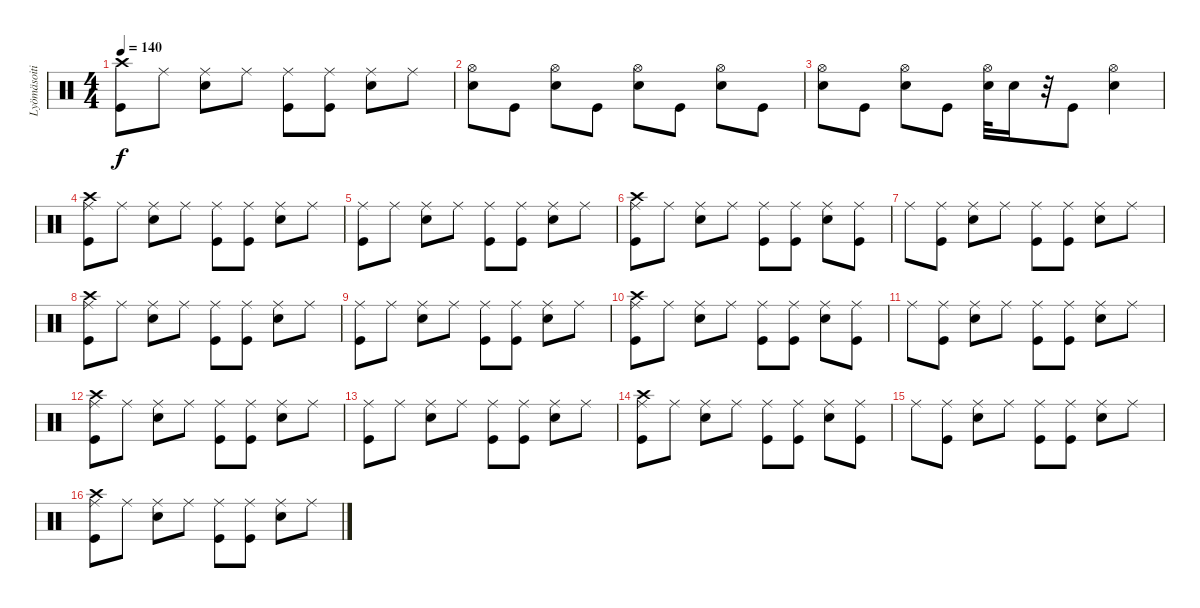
\track ("Lyömäsoitin" "Lyömäsoiti") {instrument percussion}
\staff {score}
\articulation defaults
\ts (4 4)
\tempo 140
\clef neutral
\ks c
("Crash high (hit)" "Kick (hit)").8{dy f} "Ride (middle)".8 ("Ride (middle)" "Snare (hit) 2").8 "Ride (middle)".8 ("Ride (middle)" "Kick (hit)").8 ("Ride (middle)" "Kick (hit)").8 ("Ride (middle)" "Snare (hit) 2").8 "Ride (middle)".8 |
("Hi-Hat (open)" "Snare (hit) 2").8 "Kick (hit)".8 ("Hi-Hat (open)" "Snare (hit) 2").8 "Kick (hit)".8 ("Hi-Hat (open)" "Snare (hit) 2").8 "Kick (hit)".8 ("Hi-Hat (open)" "Snare (hit) 2").8 "Kick (hit)".8 |
("Hi-Hat (open)" "Snare (hit) 2").8 "Kick (hit)".8 ("Hi-Hat (open)" "Snare (hit) 2").8 "Kick (hit)".8 ("Hi-Hat (open)" "Snare (hit) 2").32 "Snare (hit) 2".16 r.32 "Kick (hit)".8 ("Hi-Hat (open)" "Snare (hit) 2").4 |
("Crash high (hit)" "Ride (middle)" "Kick (hit)").8 "Ride (middle)".8 ("Ride (middle)" "Snare (hit) 2").8 "Ride (middle)".8 ("Ride (middle)" "Kick (hit)").8 ("Ride (middle)" "Kick (hit)").8 ("Ride (middle)" "Snare (hit) 2").8 "Ride (middle)".8 |
("Ride (middle)" "Kick (hit)").8 "Ride (middle)".8 ("Ride (middle)" "Snare (hit) 2").8 "Ride (middle)".8 ("Ride (middle)" "Kick (hit)").8 ("Ride (middle)" "Kick (hit)").8 ("Ride (middle)" "Snare (hit) 2").8 "Ride (middle)".8 |
("Crash high (hit)" "Ride (middle)" "Kick (hit)").8 "Ride (middle)".8 ("Ride (middle)" "Snare (hit) 2").8 "Ride (middle)".8 ("Ride (middle)" "Kick (hit)").8 ("Ride (middle)" "Kick (hit)").8 ("Ride (middle)" "Snare (hit) 2").8 ("Ride (middle)" "Kick (hit)").8 |
"Ride (middle)".8 ("Ride (middle)" "Kick (hit)").8 ("Ride (middle)" "Snare (hit) 2").8 "Ride (middle)".8 ("Ride (middle)" "Kick (hit)").8 ("Ride (middle)" "Kick (hit)").8 ("Ride (middle)" "Snare (hit) 2").8 "Ride (middle)".8 |
("Crash high (hit)" "Ride (middle)" "Kick (hit)").8 "Ride (middle)".8 ("Ride (middle)" "Snare (hit) 2").8 "Ride (middle)".8 ("Ride (middle)" "Kick (hit)").8 ("Ride (middle)" "Kick (hit)").8 ("Ride (middle)" "Snare (hit) 2").8 "Ride (middle)".8 |
("Ride (middle)" "Kick (hit)").8 "Ride (middle)".8 ("Ride (middle)" "Snare (hit) 2").8 "Ride (middle)".8 ("Ride (middle)" "Kick (hit)").8 ("Ride (middle)" "Kick (hit)").8 ("Ride (middle)" "Snare (hit) 2").8 "Ride (middle)".8 |
("Crash high (hit)" "Ride (middle)" "Kick (hit)").8 "Ride (middle)".8 ("Ride (middle)" "Snare (hit) 2").8 "Ride (middle)".8 ("Ride (middle)" "Kick (hit)").8 ("Ride (middle)" "Kick (hit)").8 ("Ride (middle)" "Snare (hit) 2").8 ("Ride (middle)" "Kick (hit)").8 |
"Ride (middle)".8 ("Ride (middle)" "Kick (hit)").8 ("Ride (middle)" "Snare (hit) 2").8 "Ride (middle)".8 ("Ride (middle)" "Kick (hit)").8 ("Ride (middle)" "Kick (hit)").8 ("Ride (middle)" "Snare (hit) 2").8 "Ride (middle)".8 |
("Crash high (hit)" "Ride (middle)" "Kick (hit)").8 "Ride (middle)".8 ("Ride (middle)" "Snare (hit) 2").8 "Ride (middle)".8 ("Ride (middle)" "Kick (hit)").8 ("Ride (middle)" "Kick (hit)").8 ("Ride (middle)" "Snare (hit) 2").8 "Ride (middle)".8 |
("Ride (middle)" "Kick (hit)").8 "Ride (middle)".8 ("Ride (middle)" "Snare (hit) 2").8 "Ride (middle)".8 ("Ride (middle)" "Kick (hit)").8 ("Ride (middle)" "Kick (hit)").8 ("Ride (middle)" "Snare (hit) 2").8 "Ride (middle)".8 |
("Crash high (hit)" "Ride (middle)" "Kick (hit)").8 "Ride (middle)".8 ("Ride (middle)" "Snare (hit) 2").8 "Ride (middle)".8 ("Ride (middle)" "Kick (hit)").8 ("Ride (middle)" "Kick (hit)").8 ("Ride (middle)" "Snare (hit) 2").8 ("Ride (middle)" "Kick (hit)").8 |
"Ride (middle)".8 ("Ride (middle)" "Kick (hit)").8 ("Ride (middle)" "Snare (hit) 2").8 "Ride (middle)".8 ("Ride (middle)" "Kick (hit)").8 ("Ride (middle)" "Kick (hit)").8 ("Ride (middle)" "Snare (hit) 2").8 "Ride (middle)".8 |
("Crash high (hit)" "Ride (middle)" "Kick (hit)").8 "Ride (middle)".8 ("Ride (middle)" "Snare (hit) 2").8 "Ride (middle)".8 ("Ride (middle)" "Kick (hit)").8 ("Ride (middle)" "Kick (hit)").8 ("Ride (middle)" "Snare (hit) 2").8 "Ride (middle)".8
